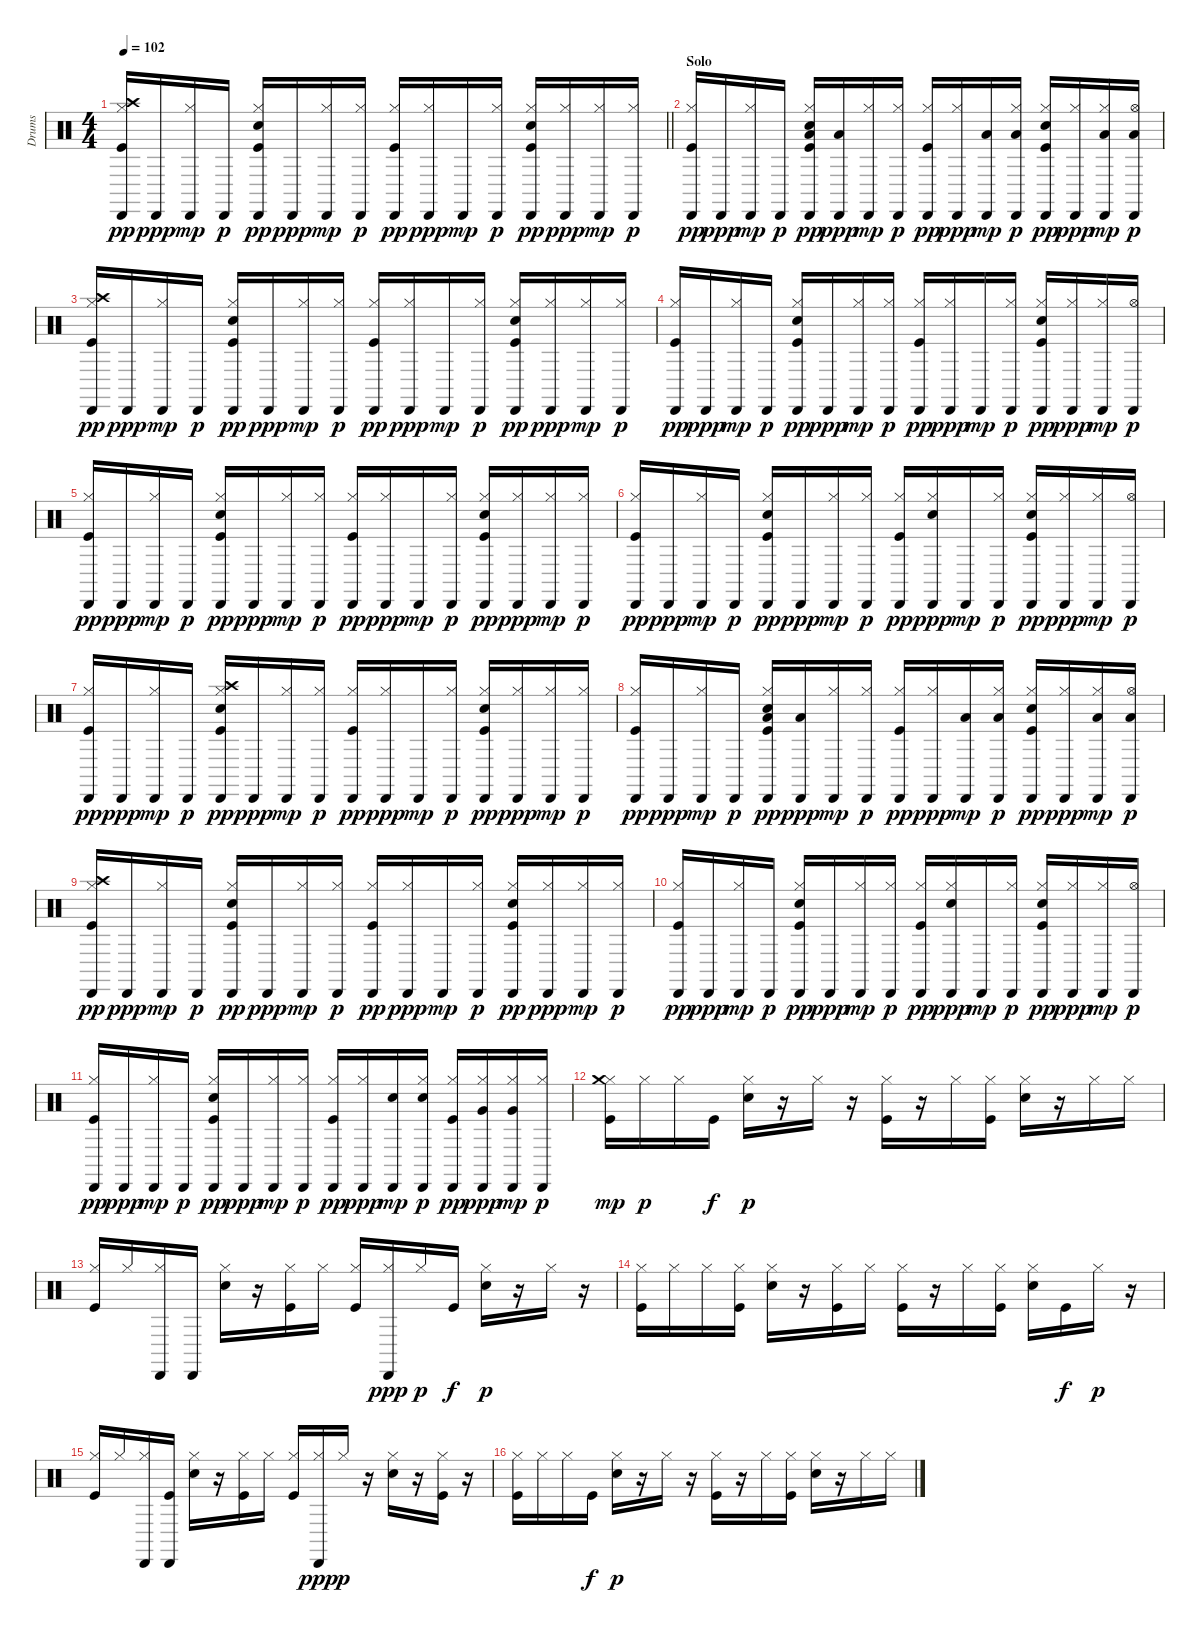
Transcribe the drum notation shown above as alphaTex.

\track ("Drums" "Drums") {instrument percussion}
\staff {score}
\articulation defaults
\ts (4 4)
\tempo 102
\clef neutral
\barLineRight lightlight
\ks c
("Kick (hit)" "Hi-Hat (closed)" "Crash high (hit)" "Cabasa (hit)").16{dy pp} "Cabasa (hit)".16{dy ppp} ("Hi-Hat (closed)" "Cabasa (hit)").16{dy mp} "Cabasa (hit)".16{dy p} ("Kick (hit)" "Snare (hit) 2" "Hi-Hat (closed)" "Cabasa (hit)").16{dy pp} "Cabasa (hit)".16{dy ppp} ("Hi-Hat (closed)" "Cabasa (hit)").16{dy mp} ("Hi-Hat (closed)" "Cabasa (hit)").16{dy p} ("Kick (hit)" "Hi-Hat (closed)" "Cabasa (hit)").16{dy pp} ("Hi-Hat (closed)" "Cabasa (hit)").16{dy ppp} "Cabasa (hit)".16{dy mp} ("Hi-Hat (closed)" "Cabasa (hit)").16{dy p} ("Kick (hit)" "Snare (hit) 2" "Hi-Hat (closed)" "Cabasa (hit)").16{dy pp} ("Hi-Hat (closed)" "Cabasa (hit)").16{dy ppp} ("Hi-Hat (closed)" "Cabasa (hit)").16{dy mp} ("Hi-Hat (closed)" "Cabasa (hit)").16{dy p} |
\section ("" "Solo")
("Kick (hit)" "Hi-Hat (closed)" "Cabasa (hit)").16{dy pp} "Cabasa (hit)".16{dy ppp} ("Hi-Hat (closed)" "Cabasa (hit)").16{dy mp} "Cabasa (hit)".16{dy p} ("Kick (hit)" "Snare (hit) 2" "Hi-Hat (closed)" "Low Tom (hit)" "Cabasa (hit)").16{dy pp} ("Low Tom (hit)" "Cabasa (hit)").16{dy ppp} ("Hi-Hat (closed)" "Cabasa (hit)").16{dy mp} ("Hi-Hat (closed)" "Cabasa (hit)").16{dy p} ("Kick (hit)" "Hi-Hat (closed)" "Cabasa (hit)").16{dy pp} ("Hi-Hat (closed)" "Cabasa (hit)").16{dy ppp} ("Low Tom (hit)" "Cabasa (hit)").16{dy mp} ("Hi-Hat (closed)" "Low Tom (hit)" "Cabasa (hit)").16{dy p} ("Kick (hit)" "Snare (hit) 2" "Hi-Hat (closed)" "Cabasa (hit)").16{dy pp} ("Hi-Hat (closed)" "Cabasa (hit)").16{dy ppp} ("Low Floor Tom (hit)" "Hi-Hat (closed)" "Cabasa (hit)").16{dy mp} ("Low Floor Tom (hit)" "Hi-Hat (open)" "Cabasa (hit)").16{dy p} |
("Kick (hit)" "Hi-Hat (closed)" "Crash high (hit)" "Cabasa (hit)").16{dy pp} "Cabasa (hit)".16{dy ppp} ("Hi-Hat (closed)" "Cabasa (hit)").16{dy mp} "Cabasa (hit)".16{dy p} ("Kick (hit)" "Snare (hit) 2" "Hi-Hat (closed)" "Cabasa (hit)").16{dy pp} "Cabasa (hit)".16{dy ppp} ("Hi-Hat (closed)" "Cabasa (hit)").16{dy mp} ("Hi-Hat (closed)" "Cabasa (hit)").16{dy p} ("Kick (hit)" "Hi-Hat (closed)" "Cabasa (hit)").16{dy pp} ("Hi-Hat (closed)" "Cabasa (hit)").16{dy ppp} "Cabasa (hit)".16{dy mp} ("Hi-Hat (closed)" "Cabasa (hit)").16{dy p} ("Kick (hit)" "Snare (hit) 2" "Hi-Hat (closed)" "Cabasa (hit)").16{dy pp} ("Hi-Hat (closed)" "Cabasa (hit)").16{dy ppp} ("Hi-Hat (closed)" "Cabasa (hit)").16{dy mp} ("Hi-Hat (closed)" "Cabasa (hit)").16{dy p} |
("Kick (hit)" "Hi-Hat (closed)" "Cabasa (hit)").16{dy pp} "Cabasa (hit)".16{dy ppp} ("Hi-Hat (closed)" "Cabasa (hit)").16{dy mp} "Cabasa (hit)".16{dy p} ("Kick (hit)" "Snare (hit) 2" "Hi-Hat (closed)" "Cabasa (hit)").16{dy pp} "Cabasa (hit)".16{dy ppp} ("Hi-Hat (closed)" "Cabasa (hit)").16{dy mp} ("Hi-Hat (closed)" "Cabasa (hit)").16{dy p} ("Kick (hit)" "Hi-Hat (closed)" "Cabasa (hit)").16{dy pp} ("Hi-Hat (closed)" "Cabasa (hit)").16{dy ppp} "Cabasa (hit)".16{dy mp} ("Hi-Hat (closed)" "Cabasa (hit)").16{dy p} ("Kick (hit)" "Snare (hit) 2" "Hi-Hat (closed)" "Cabasa (hit)").16{dy pp} ("Hi-Hat (closed)" "Cabasa (hit)").16{dy ppp} ("Hi-Hat (closed)" "Cabasa (hit)").16{dy mp} ("Hi-Hat (open)" "Cabasa (hit)").16{dy p} |
("Kick (hit)" "Hi-Hat (closed)" "Cabasa (hit)").16{dy pp} "Cabasa (hit)".16{dy ppp} ("Hi-Hat (closed)" "Cabasa (hit)").16{dy mp} "Cabasa (hit)".16{dy p} ("Kick (hit)" "Snare (hit) 2" "Hi-Hat (closed)" "Cabasa (hit)").16{dy pp} "Cabasa (hit)".16{dy ppp} ("Hi-Hat (closed)" "Cabasa (hit)").16{dy mp} ("Hi-Hat (closed)" "Cabasa (hit)").16{dy p} ("Kick (hit)" "Hi-Hat (closed)" "Cabasa (hit)").16{dy pp} ("Hi-Hat (closed)" "Cabasa (hit)").16{dy ppp} "Cabasa (hit)".16{dy mp} ("Hi-Hat (closed)" "Cabasa (hit)").16{dy p} ("Kick (hit)" "Snare (hit) 2" "Hi-Hat (closed)" "Cabasa (hit)").16{dy pp} ("Hi-Hat (closed)" "Cabasa (hit)").16{dy ppp} ("Hi-Hat (closed)" "Cabasa (hit)").16{dy mp} ("Hi-Hat (closed)" "Cabasa (hit)").16{dy p} |
("Kick (hit)" "Hi-Hat (closed)" "Cabasa (hit)").16{dy pp} "Cabasa (hit)".16{dy ppp} ("Hi-Hat (closed)" "Cabasa (hit)").16{dy mp} "Cabasa (hit)".16{dy p} ("Kick (hit)" "Snare (hit) 2" "Hi-Hat (closed)" "Cabasa (hit)").16{dy pp} "Cabasa (hit)".16{dy ppp} ("Hi-Hat (closed)" "Cabasa (hit)").16{dy mp} ("Hi-Hat (closed)" "Cabasa (hit)").16{dy p} ("Kick (hit)" "Hi-Hat (closed)" "Cabasa (hit)").16{dy pp} ("Snare (hit) 2" "Hi-Hat (closed)" "Cabasa (hit)").16{dy ppp} "Cabasa (hit)".16{dy mp} ("Hi-Hat (closed)" "Cabasa (hit)").16{dy p} ("Kick (hit)" "Snare (hit) 2" "Hi-Hat (closed)" "Cabasa (hit)").16{dy pp} ("Hi-Hat (closed)" "Cabasa (hit)").16{dy ppp} ("Hi-Hat (closed)" "Cabasa (hit)").16{dy mp} ("Hi-Hat (open)" "Cabasa (hit)").16{dy p} |
("Kick (hit)" "Hi-Hat (closed)" "Cabasa (hit)").16{dy pp} "Cabasa (hit)".16{dy ppp} ("Hi-Hat (closed)" "Cabasa (hit)").16{dy mp} "Cabasa (hit)".16{dy p} ("Kick (hit)" "Snare (hit) 2" "Hi-Hat (closed)" "Crash high (hit)" "Cabasa (hit)").16{dy pp} "Cabasa (hit)".16{dy ppp} ("Hi-Hat (closed)" "Cabasa (hit)").16{dy mp} ("Hi-Hat (closed)" "Cabasa (hit)").16{dy p} ("Kick (hit)" "Hi-Hat (closed)" "Cabasa (hit)").16{dy pp} ("Hi-Hat (closed)" "Cabasa (hit)").16{dy ppp} "Cabasa (hit)".16{dy mp} ("Hi-Hat (closed)" "Cabasa (hit)").16{dy p} ("Kick (hit)" "Snare (hit) 2" "Hi-Hat (closed)" "Cabasa (hit)").16{dy pp} ("Hi-Hat (closed)" "Cabasa (hit)").16{dy ppp} ("Hi-Hat (closed)" "Cabasa (hit)").16{dy mp} ("Hi-Hat (closed)" "Cabasa (hit)").16{dy p} |
("Kick (hit)" "Hi-Hat (closed)" "Cabasa (hit)").16{dy pp} "Cabasa (hit)".16{dy ppp} ("Hi-Hat (closed)" "Cabasa (hit)").16{dy mp} "Cabasa (hit)".16{dy p} ("Kick (hit)" "Snare (hit) 2" "Hi-Hat (closed)" "Low Tom (hit)" "Cabasa (hit)").16{dy pp} ("Low Tom (hit)" "Cabasa (hit)").16{dy ppp} ("Hi-Hat (closed)" "Cabasa (hit)").16{dy mp} ("Hi-Hat (closed)" "Cabasa (hit)").16{dy p} ("Kick (hit)" "Hi-Hat (closed)" "Cabasa (hit)").16{dy pp} ("Hi-Hat (closed)" "Cabasa (hit)").16{dy ppp} ("Low Tom (hit)" "Cabasa (hit)").16{dy mp} ("Hi-Hat (closed)" "Low Tom (hit)" "Cabasa (hit)").16{dy p} ("Kick (hit)" "Snare (hit) 2" "Hi-Hat (closed)" "Cabasa (hit)").16{dy pp} ("Hi-Hat (closed)" "Cabasa (hit)").16{dy ppp} ("Low Floor Tom (hit)" "Hi-Hat (closed)" "Cabasa (hit)").16{dy mp} ("Low Floor Tom (hit)" "Hi-Hat (open)" "Cabasa (hit)").16{dy p} |
("Kick (hit)" "Hi-Hat (closed)" "Crash high (hit)" "Cabasa (hit)").16{dy pp} "Cabasa (hit)".16{dy ppp} ("Hi-Hat (closed)" "Cabasa (hit)").16{dy mp} "Cabasa (hit)".16{dy p} ("Kick (hit)" "Snare (hit) 2" "Hi-Hat (closed)" "Cabasa (hit)").16{dy pp} "Cabasa (hit)".16{dy ppp} ("Hi-Hat (closed)" "Cabasa (hit)").16{dy mp} ("Hi-Hat (closed)" "Cabasa (hit)").16{dy p} ("Kick (hit)" "Hi-Hat (closed)" "Cabasa (hit)").16{dy pp} ("Hi-Hat (closed)" "Cabasa (hit)").16{dy ppp} "Cabasa (hit)".16{dy mp} ("Hi-Hat (closed)" "Cabasa (hit)").16{dy p} ("Kick (hit)" "Snare (hit) 2" "Hi-Hat (closed)" "Cabasa (hit)").16{dy pp} ("Hi-Hat (closed)" "Cabasa (hit)").16{dy ppp} ("Hi-Hat (closed)" "Cabasa (hit)").16{dy mp} ("Hi-Hat (closed)" "Cabasa (hit)").16{dy p} |
("Kick (hit)" "Hi-Hat (closed)" "Cabasa (hit)").16{dy pp} "Cabasa (hit)".16{dy ppp} ("Hi-Hat (closed)" "Cabasa (hit)").16{dy mp} "Cabasa (hit)".16{dy p} ("Kick (hit)" "Snare (hit) 2" "Hi-Hat (closed)" "Cabasa (hit)").16{dy pp} "Cabasa (hit)".16{dy ppp} ("Hi-Hat (closed)" "Cabasa (hit)").16{dy mp} ("Hi-Hat (closed)" "Cabasa (hit)").16{dy p} ("Kick (hit)" "Hi-Hat (closed)" "Cabasa (hit)").16{dy pp} ("Snare (hit) 2" "Hi-Hat (closed)" "Cabasa (hit)").16{dy ppp} "Cabasa (hit)".16{dy mp} ("Hi-Hat (closed)" "Cabasa (hit)").16{dy p} ("Kick (hit)" "Snare (hit) 2" "Hi-Hat (closed)" "Cabasa (hit)").16{dy pp} ("Hi-Hat (closed)" "Cabasa (hit)").16{dy ppp} ("Hi-Hat (closed)" "Cabasa (hit)").16{dy mp} ("Hi-Hat (open)" "Cabasa (hit)").16{dy p} |
("Kick (hit)" "Hi-Hat (closed)" "Cabasa (hit)").16{dy pp} "Cabasa (hit)".16{dy ppp} ("Hi-Hat (closed)" "Cabasa (hit)").16{dy mp} "Cabasa (hit)".16{dy p} ("Kick (hit)" "Snare (hit) 2" "Hi-Hat (closed)" "Cabasa (hit)").16{dy pp} "Cabasa (hit)".16{dy ppp} ("Hi-Hat (closed)" "Cabasa (hit)").16{dy mp} ("Hi-Hat (closed)" "Cabasa (hit)").16{dy p} ("Kick (hit)" "Hi-Hat (closed)" "Cabasa (hit)").16{dy pp} ("Hi-Hat (closed)" "Cabasa (hit)").16{dy ppp} ("Snare (hit) 2" "Cabasa (hit)").16{dy mp} ("Snare (hit) 2" "Hi-Hat (closed)" "Cabasa (hit)").16{dy p} ("Kick (hit)" "Hi-Hat (closed)" "Cabasa (hit)").16{dy pp} ("Hi-Hat (closed)" "Very Low Tom (hit)" "Cabasa (hit)").16{dy ppp} ("Hi-Hat (closed)" "Very Low Tom (hit)" "Cabasa (hit)").16{dy mp} ("Hi-Hat (closed)" "Cabasa (hit)").16{dy p} |
("Kick (hit)" "Hi-Hat (closed)" "Crash medium (hit)").16{dy mp} "Hi-Hat (closed)".16{dy p} "Hi-Hat (closed)".16 "Kick (hit)".16{dy f} ("Snare (hit) 2" "Hi-Hat (closed)").16{dy p} r.16 "Hi-Hat (closed)".16 r.16 ("Kick (hit)" "Hi-Hat (closed)").16 r.16 "Hi-Hat (closed)".16 ("Kick (hit)" "Hi-Hat (closed)").16 ("Snare (hit) 2" "Hi-Hat (closed)").16 r.16 "Hi-Hat (closed)".16 "Hi-Hat (closed)".16 |
("Kick (hit)" "Hi-Hat (closed)").16 "Hi-Hat (closed)".16 ("Hi-Hat (closed)" "Cabasa (hit)").16 "Cabasa (hit)".16 ("Snare (hit) 2" "Hi-Hat (closed)").16 r.16 ("Kick (hit)" "Hi-Hat (closed)").16 "Hi-Hat (closed)".16 ("Kick (hit)" "Hi-Hat (closed)").16 ("Hi-Hat (closed)" "Cabasa (hit)").16{dy ppp} "Hi-Hat (closed)".16{dy p} "Kick (hit)".16{dy f} ("Snare (hit) 2" "Hi-Hat (closed)").16{dy p} r.16 "Hi-Hat (closed)".16 r.16 |
("Kick (hit)" "Hi-Hat (closed)").16 "Hi-Hat (closed)".16 "Hi-Hat (closed)".16 ("Kick (hit)" "Hi-Hat (closed)").16 ("Snare (hit) 2" "Hi-Hat (closed)").16 r.16 ("Kick (hit)" "Hi-Hat (closed)").16 "Hi-Hat (closed)".16 ("Kick (hit)" "Hi-Hat (closed)").16 r.16 "Hi-Hat (closed)".16 ("Kick (hit)" "Hi-Hat (closed)").16 ("Snare (hit) 2" "Hi-Hat (closed)").16 "Kick (hit)".16{dy f} "Hi-Hat (closed)".16{dy p} r.16 |
("Kick (hit)" "Hi-Hat (closed)").16 "Hi-Hat (closed)".16 ("Hi-Hat (closed)" "Cabasa (hit)").16 ("Kick (hit)" "Cabasa (hit)").16 ("Snare (hit) 2" "Hi-Hat (closed)").16 r.16 ("Kick (hit)" "Hi-Hat (closed)").16 "Hi-Hat (closed)".16 ("Kick (hit)" "Hi-Hat (closed)").16 ("Hi-Hat (closed)" "Cabasa (hit)").16{dy ppp} "Hi-Hat (closed)".16{dy p} r.16 ("Snare (hit) 2" "Hi-Hat (closed)").16 r.16 ("Kick (hit)" "Hi-Hat (closed)").16 r.16 |
("Kick (hit)" "Hi-Hat (closed)").16 "Hi-Hat (closed)".16 "Hi-Hat (closed)".16 "Kick (hit)".16{dy f} ("Snare (hit) 2" "Hi-Hat (closed)").16{dy p} r.16 "Hi-Hat (closed)".16 r.16 ("Kick (hit)" "Hi-Hat (closed)").16 r.16 "Hi-Hat (closed)".16 ("Kick (hit)" "Hi-Hat (closed)").16 ("Snare (hit) 2" "Hi-Hat (closed)").16 r.16 "Hi-Hat (closed)".16 "Hi-Hat (closed)".16
